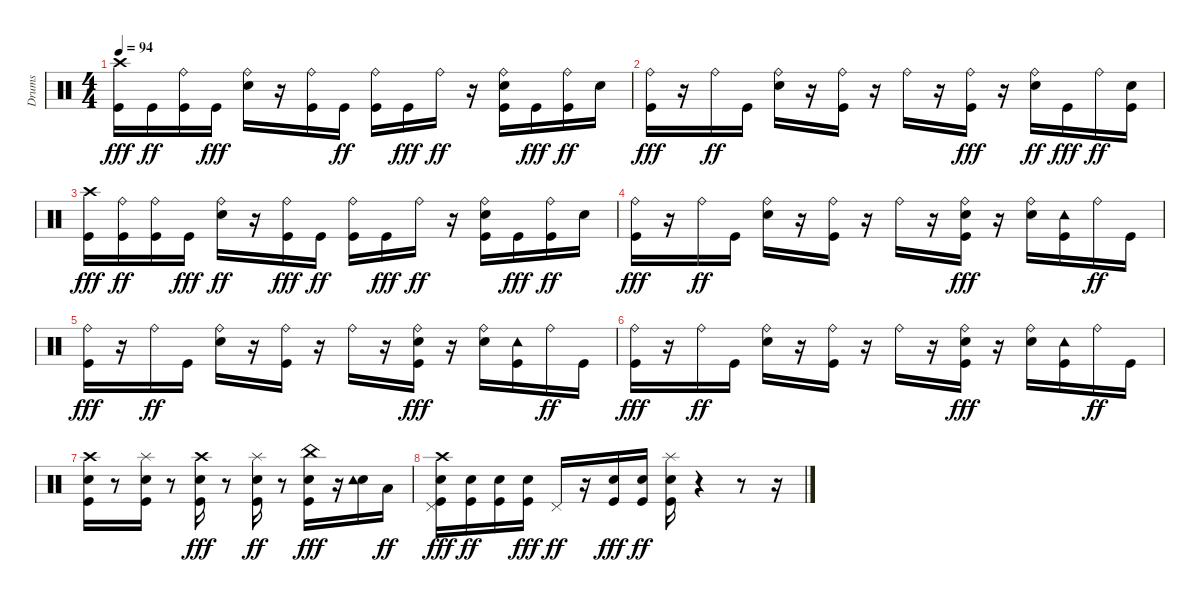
\track ("Drums" "Drums") {instrument percussion}
\staff {score}
\articulation defaults
\ts (4 4)
\tempo 94
\clef neutral
\ks c
("Crash high (hit)" "Kick (hit)").16{dy fff} "Kick (hit)".16{dy ff} ("Ride (bell)" "Kick (hit)").16 "Kick (hit)".16{dy fff} ("Ride (bell)" "Snare (hit) 2").16 r.16 ("Ride (bell)" "Kick (hit)").16 "Kick (hit)".16{dy ff} ("Ride (bell)" "Kick (hit)").16 "Kick (hit)".16{dy fff} "Ride (bell)".16{dy ff} r.16 ("Ride (bell)" "Kick (hit)" "Snare (hit) 2").16 "Kick (hit)".16{dy fff} ("Ride (bell)" "Kick (hit)").16{dy ff} "Snare (hit) 2".16 |
("Ride (bell)" "Kick (hit)").16{dy fff} r.16 "Ride (bell)".16{dy ff} "Kick (hit)".16 ("Ride (bell)" "Snare (hit) 2").16 r.16 ("Ride (bell)" "Kick (hit)").16 r.16 "Ride (bell)".16 r.16 ("Ride (bell)" "Kick (hit)").16{dy fff} r.16 ("Ride (bell)" "Snare (hit) 2").16{dy ff} "Kick (hit)".16{dy fff} "Ride (bell)".16{dy ff} ("Kick (hit)" "Snare (hit) 2").16 |
("Crash high (hit)" "Kick (hit)").16{dy fff} ("Ride (bell)" "Kick (hit)").16{dy ff} ("Ride (bell)" "Kick (hit)").16 "Kick (hit)".16{dy fff} ("Ride (bell)" "Snare (hit) 2").16{dy ff} r.16 ("Ride (bell)" "Kick (hit)").16{dy fff} "Kick (hit)".16{dy ff} ("Ride (bell)" "Kick (hit)").16 "Kick (hit)".16{dy fff} "Ride (bell)".16{dy ff} r.16 ("Ride (bell)" "Kick (hit)" "Snare (hit) 2").16 "Kick (hit)".16{dy fff} ("Ride (bell)" "Kick (hit)").16{dy ff} "Snare (hit) 2".16 |
("Ride (bell)" "Kick (hit)").16{dy fff} r.16 "Ride (bell)".16{dy ff} "Kick (hit)".16 ("Ride (bell)" "Snare (hit) 2").16 r.16 ("Ride (bell)" "Kick (hit)").16 r.16 "Ride (bell)".16 r.16 ("Ride (bell)" "Kick (hit)" "Snare (hit) 2").16{dy fff} r.16 ("Ride (bell)" "Snare (hit) 2").16 ("Tambourine (hit)" "Kick (hit)").16 "Ride (bell)".16{dy ff} "Kick (hit)".16 |
("Ride (bell)" "Kick (hit)").16{dy fff} r.16 "Ride (bell)".16{dy ff} "Kick (hit)".16 ("Ride (bell)" "Snare (hit) 2").16 r.16 ("Ride (bell)" "Kick (hit)").16 r.16 "Ride (bell)".16 r.16 ("Ride (bell)" "Kick (hit)" "Snare (hit) 2").16{dy fff} r.16 ("Ride (bell)" "Snare (hit) 2").16 ("Tambourine (hit)" "Kick (hit)").16 "Ride (bell)".16{dy ff} "Kick (hit)".16 |
("Ride (bell)" "Kick (hit)").16{dy fff} r.16 "Ride (bell)".16{dy ff} "Kick (hit)".16 ("Ride (bell)" "Snare (hit) 2").16 r.16 ("Ride (bell)" "Kick (hit)").16 r.16 "Ride (bell)".16 r.16 ("Ride (bell)" "Kick (hit)" "Snare (hit) 2").16{dy fff} r.16 ("Ride (bell)" "Snare (hit) 2").16 ("Tambourine (hit)" "Kick (hit)").16 "Ride (bell)".16{dy ff} "Kick (hit)".16 |
("Snare (hit) 2" "Crash high (hit)" "Kick (hit)").16 r.8 ("Kick (hit)" "Snare (hit) 2" "Splash (hit)").16 r.8 ("Kick (hit)" "Snare (hit) 2" "Crash high (hit)").16{dy fff} r.8 ("Splash (hit)" "Snare (hit) 2" "Kick (hit)").16{dy ff} r.8 ("China (hit)" "Kick (hit)" "Snare (hit) 2").16{dy fff} r.16 ("Snare (hit) 2" "Tambourine (hit)").16 "Low Floor Tom (hit)".16{dy ff} |
("Pedal Hi-Hat (hit)" "Snare (hit) 2" "Crash high (hit)" "Kick (hit)").16{dy fff} ("Snare (hit) 2" "Kick (hit)").16{dy ff} ("Snare (hit) 2" "Kick (hit)").16 ("Snare (hit) 2" "Kick (hit)").16{dy fff} "Pedal Hi-Hat (hit)".16{dy ff} r.16 ("Snare (hit) 2" "Kick (hit)").16{dy fff} ("Snare (hit) 2" "Kick (hit)").16{dy ff} ("Snare (hit) 2" "Splash (hit)" "Kick (hit)").16 r.4 r.8 r.16
